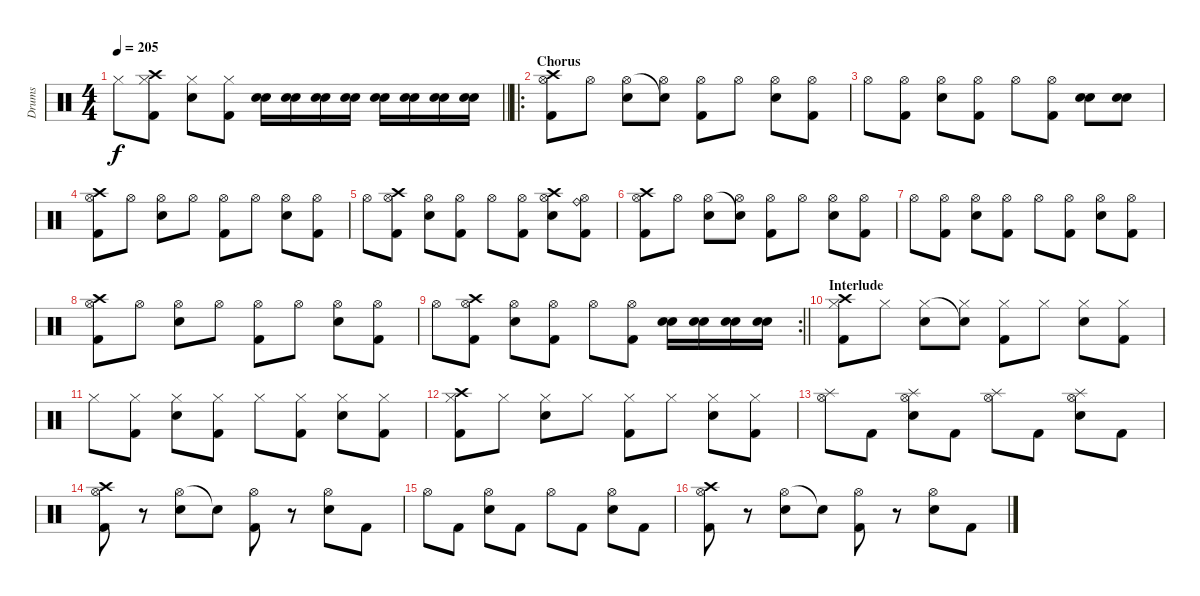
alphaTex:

\track ("Drums" "Drums") {instrument percussion}
\staff {score}
\articulation defaults
\ts (4 4)
\tempo 205
\clef neutral
\barLineRight lightlight
\ks c "Hi-Hat (closed)".8{dy f}
("Crash high (hit)" "Hi-Hat (closed)" "Kick (hit) 2").8 ("Hi-Hat (closed)" "Electric Snare (hit)").8 ("Hi-Hat (closed)" "Kick (hit) 2").8 ("Electric Snare (hit)" "Electric Snare (hit)").16 ("Electric Snare (hit)" "Electric Snare (hit)").16 ("Electric Snare (hit)" "Electric Snare (hit)").16 ("Electric Snare (hit)" "Electric Snare (hit)").16 ("Electric Snare (hit)" "Electric Snare (hit)").16 ("Electric Snare (hit)" "Electric Snare (hit)").16 ("Electric Snare (hit)" "Electric Snare (hit)").16 ("Electric Snare (hit)" "Electric Snare (hit)").16 |
\ro
\section ("" "Chorus")
("Crash high (hit)" "Hi-Hat (open)" "Kick (hit) 2").8 "Hi-Hat (open)".8 ("Hi-Hat (open)" "Electric Snare (hit)").8 ("Snare (hit)"{t} "Hi-Hat (open)").8 ("Hi-Hat (open)" "Kick (hit) 2").8 "Hi-Hat (open)".8 ("Hi-Hat (open)" "Electric Snare (hit)").8 ("Hi-Hat (open)" "Kick (hit) 2").8 |
"Hi-Hat (open)".8 ("Hi-Hat (open)" "Kick (hit) 2").8 ("Hi-Hat (open)" "Electric Snare (hit)").8 ("Hi-Hat (open)" "Kick (hit) 2").8 "Hi-Hat (open)".8 ("Hi-Hat (open)" "Kick (hit) 2").8 ("Electric Snare (hit)" "Electric Snare (hit)").8 ("Electric Snare (hit)" "Electric Snare (hit)").8 |
("Crash high (hit)" "Hi-Hat (open)" "Kick (hit) 2").8 "Hi-Hat (open)".8 ("Hi-Hat (open)" "Electric Snare (hit)").8 "Hi-Hat (open)".8 ("Hi-Hat (open)" "Kick (hit) 2").8 "Hi-Hat (open)".8 ("Hi-Hat (open)" "Electric Snare (hit)").8 ("Hi-Hat (open)" "Kick (hit) 2").8 |
"Hi-Hat (open)".8 ("Crash high (hit)" "Hi-Hat (open)" "Kick (hit) 2").8 ("Hi-Hat (open)" "Electric Snare (hit)").8 ("Hi-Hat (open)" "Kick (hit) 2").8 "Hi-Hat (open)".8 ("Hi-Hat (open)" "Kick (hit) 2").8 ("Crash high (hit)" "Hi-Hat (open)" "Electric Snare (hit)").8 ("Ride (bell)" "Hi-Hat (open)" "Kick (hit) 2").8 |
("Crash high (hit)" "Hi-Hat (open)" "Kick (hit) 2").8 "Hi-Hat (open)".8 ("Hi-Hat (open)" "Electric Snare (hit)").8 ("Snare (hit)"{t} "Hi-Hat (open)").8 ("Hi-Hat (open)" "Kick (hit) 2").8 "Hi-Hat (open)".8 ("Hi-Hat (open)" "Electric Snare (hit)").8 ("Hi-Hat (open)" "Kick (hit) 2").8 |
"Hi-Hat (open)".8 ("Hi-Hat (open)" "Kick (hit) 2").8 ("Hi-Hat (open)" "Electric Snare (hit)").8 ("Hi-Hat (open)" "Kick (hit) 2").8 "Hi-Hat (open)".8 ("Hi-Hat (open)" "Kick (hit) 2").8 ("Hi-Hat (open)" "Electric Snare (hit)").8 ("Hi-Hat (open)" "Kick (hit) 2").8 |
("Crash high (hit)" "Hi-Hat (open)" "Kick (hit) 2").8 "Hi-Hat (open)".8 ("Hi-Hat (open)" "Electric Snare (hit)").8 "Hi-Hat (open)".8 ("Hi-Hat (open)" "Kick (hit) 2").8 "Hi-Hat (open)".8 ("Hi-Hat (open)" "Electric Snare (hit)").8 ("Hi-Hat (open)" "Kick (hit) 2").8 |
\rc 2
\barLineRight lightlight "Hi-Hat (open)".8
("Crash high (hit)" "Hi-Hat (open)" "Kick (hit) 2").8 ("Hi-Hat (open)" "Electric Snare (hit)").8 ("Hi-Hat (open)" "Kick (hit) 2").8 "Hi-Hat (open)".8 ("Hi-Hat (open)" "Kick (hit) 2").8 ("Electric Snare (hit)" "Electric Snare (hit)").16 ("Electric Snare (hit)" "Electric Snare (hit)").16 ("Electric Snare (hit)" "Electric Snare (hit)").16 ("Electric Snare (hit)" "Electric Snare (hit)").16 |
\section ("" "Interlude")
("Crash high (hit)" "Hi-Hat (closed)" "Kick (hit) 2").8 "Hi-Hat (closed)".8 ("Hi-Hat (closed)" "Electric Snare (hit)").8 ("Snare (hit)"{t} "Hi-Hat (closed)").8 ("Hi-Hat (closed)" "Kick (hit) 2").8 "Hi-Hat (closed)".8 ("Hi-Hat (closed)" "Electric Snare (hit)").8 ("Hi-Hat (closed)" "Kick (hit) 2").8 |
"Hi-Hat (closed)".8 ("Hi-Hat (closed)" "Kick (hit) 2").8 ("Hi-Hat (closed)" "Electric Snare (hit)").8 ("Hi-Hat (closed)" "Kick (hit) 2").8 "Hi-Hat (closed)".8 ("Hi-Hat (closed)" "Kick (hit) 2").8 ("Hi-Hat (closed)" "Electric Snare (hit)").8 ("Hi-Hat (closed)" "Kick (hit) 2").8 |
("Crash high (hit)" "Hi-Hat (closed)" "Kick (hit) 2").8 "Hi-Hat (closed)".8 ("Hi-Hat (closed)" "Electric Snare (hit)").8 "Hi-Hat (closed)".8 ("Hi-Hat (closed)" "Kick (hit) 2").8 "Hi-Hat (closed)".8 ("Hi-Hat (closed)" "Electric Snare (hit)").8 ("Hi-Hat (closed)" "Kick (hit) 2").8 |
("Splash (hit)" "Hi-Hat (open)").8 "Kick (hit) 2".8 ("Splash (hit)" "Hi-Hat (open)" "Electric Snare (hit)").8 "Kick (hit) 2".8 ("Splash (hit)" "Hi-Hat (open)").8 "Kick (hit) 2".8 ("Splash (hit)" "Hi-Hat (open)" "Electric Snare (hit)").8 "Kick (hit) 2".8 |
("Crash high (hit)" "Hi-Hat (open)" "Kick (hit) 2").8 r.8 ("Hi-Hat (open)" "Electric Snare (hit)").8 "Snare (hit)"{t}.8 ("Hi-Hat (open)" "Kick (hit) 2").8 r.8 ("Hi-Hat (open)" "Electric Snare (hit)").8 "Kick (hit) 2".8 |
"Hi-Hat (open)".8 "Kick (hit) 2".8 ("Hi-Hat (open)" "Electric Snare (hit)").8 "Kick (hit) 2".8 "Hi-Hat (open)".8 "Kick (hit) 2".8 ("Hi-Hat (open)" "Electric Snare (hit)").8 "Kick (hit) 2".8 |
("Crash high (hit)" "Hi-Hat (open)" "Kick (hit) 2").8 r.8 ("Hi-Hat (open)" "Electric Snare (hit)").8 "Snare (hit)"{t}.8 ("Hi-Hat (open)" "Kick (hit) 2").8 r.8 ("Hi-Hat (open)" "Electric Snare (hit)").8 "Kick (hit) 2".8
